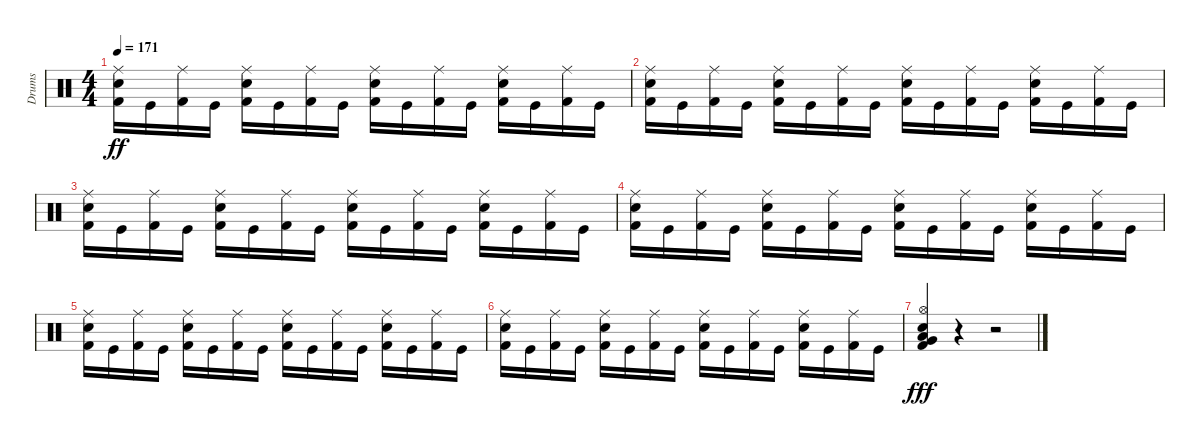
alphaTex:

\track ("Drums" "Drums") {instrument percussion}
\staff {score}
\articulation defaults
\ts (4 4)
\tempo 171
\clef neutral
\ks c
("Ride (middle)" "Electric Snare (hit)" "Kick (hit) 2").16{dy ff} "Kick (hit)".16 ("Ride (middle)" "Kick (hit) 2").16 "Kick (hit)".16 ("Ride (middle)" "Electric Snare (hit)" "Kick (hit) 2").16 "Kick (hit)".16 ("Ride (middle)" "Kick (hit) 2").16 "Kick (hit)".16 ("Ride (middle)" "Electric Snare (hit)" "Kick (hit) 2").16 "Kick (hit)".16 ("Ride (middle)" "Kick (hit) 2").16 "Kick (hit)".16 ("Ride (middle)" "Electric Snare (hit)" "Kick (hit) 2").16 "Kick (hit)".16 ("Ride (middle)" "Kick (hit) 2").16 "Kick (hit)".16 |
("Ride (middle)" "Electric Snare (hit)" "Kick (hit) 2").16 "Kick (hit)".16 ("Ride (middle)" "Kick (hit) 2").16 "Kick (hit)".16 ("Ride (middle)" "Electric Snare (hit)" "Kick (hit) 2").16 "Kick (hit)".16 ("Ride (middle)" "Kick (hit) 2").16 "Kick (hit)".16 ("Ride (middle)" "Electric Snare (hit)" "Kick (hit) 2").16 "Kick (hit)".16 ("Ride (middle)" "Kick (hit) 2").16 "Kick (hit)".16 ("Ride (middle)" "Electric Snare (hit)" "Kick (hit) 2").16 "Kick (hit)".16 ("Ride (middle)" "Kick (hit) 2").16 "Kick (hit)".16 |
("Ride (middle)" "Electric Snare (hit)" "Kick (hit) 2").16 "Kick (hit)".16 ("Ride (middle)" "Kick (hit) 2").16 "Kick (hit)".16 ("Ride (middle)" "Electric Snare (hit)" "Kick (hit) 2").16 "Kick (hit)".16 ("Ride (middle)" "Kick (hit) 2").16 "Kick (hit)".16 ("Ride (middle)" "Electric Snare (hit)" "Kick (hit) 2").16 "Kick (hit)".16 ("Ride (middle)" "Kick (hit) 2").16 "Kick (hit)".16 ("Ride (middle)" "Electric Snare (hit)" "Kick (hit) 2").16 "Kick (hit)".16 ("Ride (middle)" "Kick (hit) 2").16 "Kick (hit)".16 |
("Ride (middle)" "Electric Snare (hit)" "Kick (hit) 2").16 "Kick (hit)".16 ("Ride (middle)" "Kick (hit) 2").16 "Kick (hit)".16 ("Ride (middle)" "Electric Snare (hit)" "Kick (hit) 2").16 "Kick (hit)".16 ("Ride (middle)" "Kick (hit) 2").16 "Kick (hit)".16 ("Ride (middle)" "Electric Snare (hit)" "Kick (hit) 2").16 "Kick (hit)".16 ("Ride (middle)" "Kick (hit) 2").16 "Kick (hit)".16 ("Ride (middle)" "Electric Snare (hit)" "Kick (hit) 2").16 "Kick (hit)".16 ("Ride (middle)" "Kick (hit) 2").16 "Kick (hit)".16 |
("Ride (middle)" "Electric Snare (hit)" "Kick (hit) 2").16 "Kick (hit)".16 ("Ride (middle)" "Kick (hit) 2").16 "Kick (hit)".16 ("Ride (middle)" "Electric Snare (hit)" "Kick (hit) 2").16 "Kick (hit)".16 ("Ride (middle)" "Kick (hit) 2").16 "Kick (hit)".16 ("Ride (middle)" "Electric Snare (hit)" "Kick (hit) 2").16 "Kick (hit)".16 ("Ride (middle)" "Kick (hit) 2").16 "Kick (hit)".16 ("Ride (middle)" "Electric Snare (hit)" "Kick (hit) 2").16 "Kick (hit)".16 ("Ride (middle)" "Kick (hit) 2").16 "Kick (hit)".16 |
("Ride (middle)" "Electric Snare (hit)" "Kick (hit) 2").16 "Kick (hit)".16 ("Ride (middle)" "Kick (hit) 2").16 "Kick (hit)".16 ("Ride (middle)" "Electric Snare (hit)" "Kick (hit) 2").16 "Kick (hit)".16 ("Ride (middle)" "Kick (hit) 2").16 "Kick (hit)".16 ("Ride (middle)" "Electric Snare (hit)" "Kick (hit) 2").16 "Kick (hit)".16 ("Ride (middle)" "Kick (hit) 2").16 "Kick (hit)".16 ("Ride (middle)" "Electric Snare (hit)" "Kick (hit) 2").16 "Kick (hit)".16 ("Ride (middle)" "Kick (hit) 2").16 "Kick (hit)".16 |
("Hi-Hat (open)" "Low Floor Tom (hit)" "Electric Snare (hit)" "Very Low Tom (hit)" "Kick (hit) 2").4{dy fff} r.4 r.2
